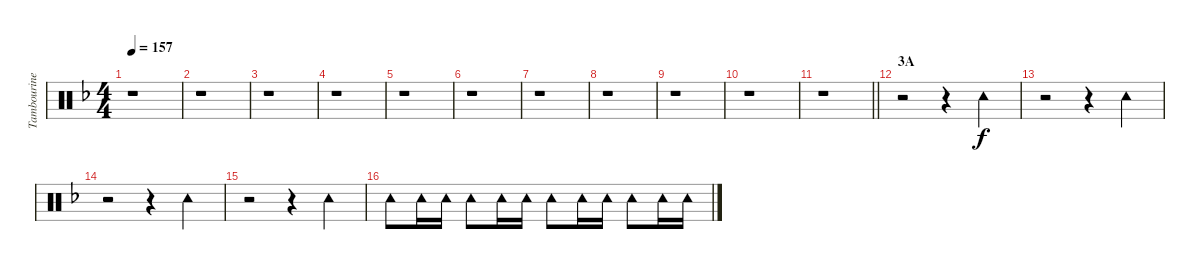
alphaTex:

\track ("Tambourine" "Tambourine") {instrument percussion}
\staff {score}
\articulation defaults
\ts (4 4)
\tempo 157
\clef neutral
\ks f
r.1{dy f} |
r.1 |
r.1 |
r.1 |
r.1 |
r.1 |
r.1 |
r.1 |
r.1 |
r.1 |
\barLineRight lightlight
r.1 |
\section ("" "3A")
r.2 r.4 "Tambourine (hit)".4 |
r.2 r.4 "Tambourine (hit)".4 |
r.2 r.4 "Tambourine (hit)".4 |
r.2 r.4 "Tambourine (hit)".4 |
"Tambourine (hit)".8 "Tambourine (hit)".16 "Tambourine (hit)".16 "Tambourine (hit)".8 "Tambourine (hit)".16 "Tambourine (hit)".16 "Tambourine (hit)".8 "Tambourine (hit)".16 "Tambourine (hit)".16 "Tambourine (hit)".8 "Tambourine (hit)".16 "Tambourine (hit)".16
